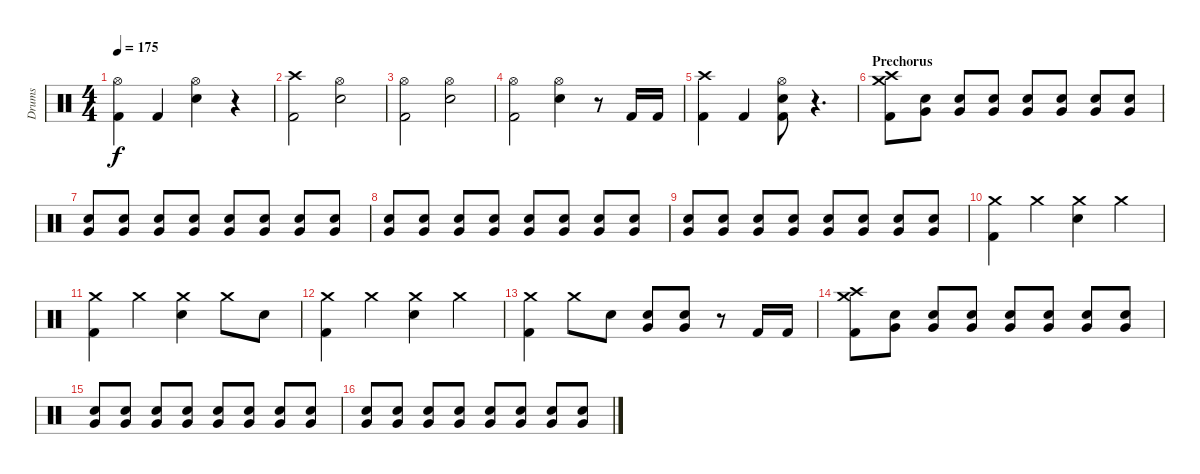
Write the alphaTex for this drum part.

\track ("Drums" "Drums") {instrument percussion}
\staff {score}
\articulation defaults
\ts (4 4)
\tempo 175
\clef neutral
\ks c
("Hi-Hat (open)" "Kick (hit) 2").4{dy f} "Kick (hit) 2".4 ("Hi-Hat (open)" "Snare (hit) 2").4 r.4 |
("Crash high (hit)" "Kick (hit) 2").2 ("Hi-Hat (open)" "Snare (hit) 2").2 |
("Hi-Hat (open)" "Kick (hit) 2").2 ("Hi-Hat (open)" "Snare (hit) 2").2 |
("Hi-Hat (open)" "Kick (hit) 2").2 ("Hi-Hat (open)" "Snare (hit) 2").4 r.8 "Kick (hit) 2".16 "Kick (hit) 2".16 |
("Crash high (hit)" "Kick (hit) 2").4 "Kick (hit) 2".4 ("Hi-Hat (open)" "Snare (hit) 2" "Kick (hit) 2").8 r.4{d volume 0} |
\section ("" "Prechorus")
("Crash high (hit)" "Crash medium (hit)" "Kick (hit) 2").8{volume 13} ("Very Low Tom (hit)" "Snare (hit) 2").8{volume 5} ("Very Low Tom (hit)" "Snare (hit) 2").8{volume 13} ("Very Low Tom (hit)" "Snare (hit) 2").8 ("Very Low Tom (hit)" "Snare (hit) 2").8 ("Very Low Tom (hit)" "Snare (hit) 2").8 ("Very Low Tom (hit)" "Snare (hit) 2").8 ("Very Low Tom (hit)" "Snare (hit) 2").8 |
("Very Low Tom (hit)" "Snare (hit) 2").8 ("Very Low Tom (hit)" "Snare (hit) 2").8 ("Very Low Tom (hit)" "Snare (hit) 2").8 ("Very Low Tom (hit)" "Snare (hit) 2").8 ("Very Low Tom (hit)" "Snare (hit) 2").8 ("Very Low Tom (hit)" "Snare (hit) 2").8 ("Very Low Tom (hit)" "Snare (hit) 2").8 ("Very Low Tom (hit)" "Snare (hit) 2").8 |
("Very Low Tom (hit)" "Snare (hit) 2").8 ("Very Low Tom (hit)" "Snare (hit) 2").8 ("Very Low Tom (hit)" "Snare (hit) 2").8 ("Very Low Tom (hit)" "Snare (hit) 2").8 ("Very Low Tom (hit)" "Snare (hit) 2").8 ("Very Low Tom (hit)" "Snare (hit) 2").8 ("Very Low Tom (hit)" "Snare (hit) 2").8 ("Very Low Tom (hit)" "Snare (hit) 2").8 |
("Very Low Tom (hit)" "Snare (hit) 2").8 ("Very Low Tom (hit)" "Snare (hit) 2").8 ("Very Low Tom (hit)" "Snare (hit) 2").8 ("Very Low Tom (hit)" "Snare (hit) 2").8 ("Very Low Tom (hit)" "Snare (hit) 2").8 ("Very Low Tom (hit)" "Snare (hit) 2").8 ("Very Low Tom (hit)" "Snare (hit) 2").8 ("Very Low Tom (hit)" "Snare (hit) 2").8 |
("Crash medium (hit)" "Kick (hit) 2").4 "Crash medium (hit)".4 ("Crash medium (hit)" "Snare (hit) 2").4 "Crash medium (hit)".4 |
("Crash medium (hit)" "Kick (hit) 2").4 "Crash medium (hit)".4 ("Crash medium (hit)" "Snare (hit) 2").4 "Crash medium (hit)".8 "Snare (hit) 2".8 |
("Crash medium (hit)" "Kick (hit) 2").4 "Crash medium (hit)".4 ("Crash medium (hit)" "Snare (hit) 2").4 "Crash medium (hit)".4 |
("Crash medium (hit)" "Kick (hit) 2").4 "Crash medium (hit)".8 "Snare (hit) 2".8 ("Very Low Tom (hit)" "Snare (hit) 2").8 ("Very Low Tom (hit)" "Snare (hit) 2").8 r.8 "Kick (hit) 2".16 "Kick (hit) 2".16 |
("Crash high (hit)" "Crash medium (hit)" "Kick (hit) 2").8{volume 13} ("Very Low Tom (hit)" "Snare (hit) 2").8{volume 5} ("Very Low Tom (hit)" "Snare (hit) 2").8{volume 13} ("Very Low Tom (hit)" "Snare (hit) 2").8 ("Very Low Tom (hit)" "Snare (hit) 2").8 ("Very Low Tom (hit)" "Snare (hit) 2").8 ("Very Low Tom (hit)" "Snare (hit) 2").8 ("Very Low Tom (hit)" "Snare (hit) 2").8 |
("Very Low Tom (hit)" "Snare (hit) 2").8 ("Very Low Tom (hit)" "Snare (hit) 2").8 ("Very Low Tom (hit)" "Snare (hit) 2").8 ("Very Low Tom (hit)" "Snare (hit) 2").8 ("Very Low Tom (hit)" "Snare (hit) 2").8 ("Very Low Tom (hit)" "Snare (hit) 2").8 ("Very Low Tom (hit)" "Snare (hit) 2").8 ("Very Low Tom (hit)" "Snare (hit) 2").8 |
("Very Low Tom (hit)" "Snare (hit) 2").8 ("Very Low Tom (hit)" "Snare (hit) 2").8 ("Very Low Tom (hit)" "Snare (hit) 2").8 ("Very Low Tom (hit)" "Snare (hit) 2").8 ("Very Low Tom (hit)" "Snare (hit) 2").8 ("Very Low Tom (hit)" "Snare (hit) 2").8 ("Very Low Tom (hit)" "Snare (hit) 2").8 ("Very Low Tom (hit)" "Snare (hit) 2").8
